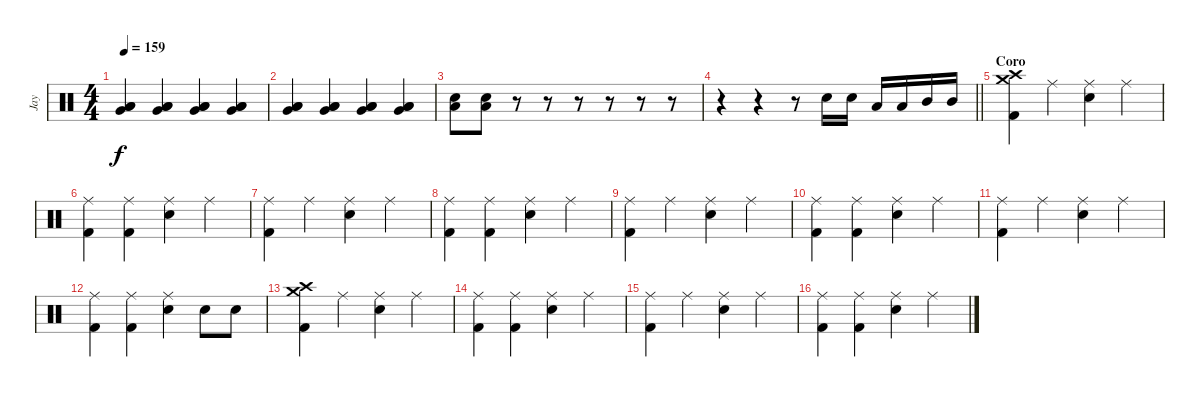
\track ("Jay" "Jay") {instrument percussion}
\staff {score}
\articulation defaults
\ts (4 4)
\tempo 159
\clef neutral
\ks c
("Very Low Tom (hit)" "Low Tom (hit)" "Low Tom (hit)").4{dy f} ("Low Tom (hit)" "Low Tom (hit)" "Very Low Tom (hit)").4 ("Low Tom (hit)" "Low Tom (hit)" "Very Low Tom (hit)").4 ("Low Tom (hit)" "Low Tom (hit)" "Very Low Tom (hit)").4 |
("Very Low Tom (hit)" "Low Tom (hit)" "Low Tom (hit)").4 ("Low Tom (hit)" "Low Tom (hit)" "Very Low Tom (hit)").4 ("Low Tom (hit)" "Low Tom (hit)" "Very Low Tom (hit)").4 ("Low Tom (hit)" "Low Tom (hit)" "Very Low Tom (hit)").4 |
("Low Tom (hit)" "Electric Snare (hit)").8 ("Low Tom (hit)" "Electric Snare (hit)").8 r.8 r.8 r.8 r.8 r.8 r.8 |
\barLineRight lightlight
r.4 r.4 r.8 "Electric Snare (hit)".16 "Electric Snare (hit)".16 "Low Tom (hit)".16 "Low Tom (hit)".16 "Mid Tom (hit)".16 "Mid Tom (hit)".16 |
\section ("" "Coro")
("Crash medium (hit)" "Crash high (hit)" "Kick (hit) 2").4 "Ride (middle)".4 ("Ride (middle)" "Electric Snare (hit)").4 "Ride (middle)".4 |
("Ride (middle)" "Kick (hit) 2").4 ("Ride (middle)" "Kick (hit) 2").4 ("Ride (middle)" "Electric Snare (hit)").4 "Ride (middle)".4 |
("Ride (middle)" "Kick (hit) 2").4 "Ride (middle)".4 ("Ride (middle)" "Electric Snare (hit)").4 "Ride (middle)".4 |
("Ride (middle)" "Kick (hit) 2").4 ("Ride (middle)" "Kick (hit) 2").4 ("Ride (middle)" "Electric Snare (hit)").4 "Ride (middle)".4 |
("Ride (middle)" "Kick (hit) 2").4 "Ride (middle)".4 ("Ride (middle)" "Electric Snare (hit)").4 "Ride (middle)".4 |
("Ride (middle)" "Kick (hit) 2").4 ("Ride (middle)" "Kick (hit) 2").4 ("Ride (middle)" "Electric Snare (hit)").4 "Ride (middle)".4 |
("Ride (middle)" "Kick (hit) 2").4 "Ride (middle)".4 ("Ride (middle)" "Electric Snare (hit)").4 "Ride (middle)".4 |
("Ride (middle)" "Kick (hit) 2").4 ("Ride (middle)" "Kick (hit) 2").4 ("Ride (middle)" "Electric Snare (hit)").4 "Electric Snare (hit)".8 "Electric Snare (hit)".8 |
("Crash medium (hit)" "Crash high (hit)" "Kick (hit) 2").4 "Ride (middle)".4 ("Ride (middle)" "Electric Snare (hit)").4 "Ride (middle)".4 |
("Ride (middle)" "Kick (hit) 2").4 ("Ride (middle)" "Kick (hit) 2").4 ("Ride (middle)" "Electric Snare (hit)").4 "Ride (middle)".4 |
("Ride (middle)" "Kick (hit) 2").4 "Ride (middle)".4 ("Ride (middle)" "Electric Snare (hit)").4 "Ride (middle)".4 |
("Ride (middle)" "Kick (hit) 2").4 ("Ride (middle)" "Kick (hit) 2").4 ("Ride (middle)" "Electric Snare (hit)").4 "Ride (middle)".4
